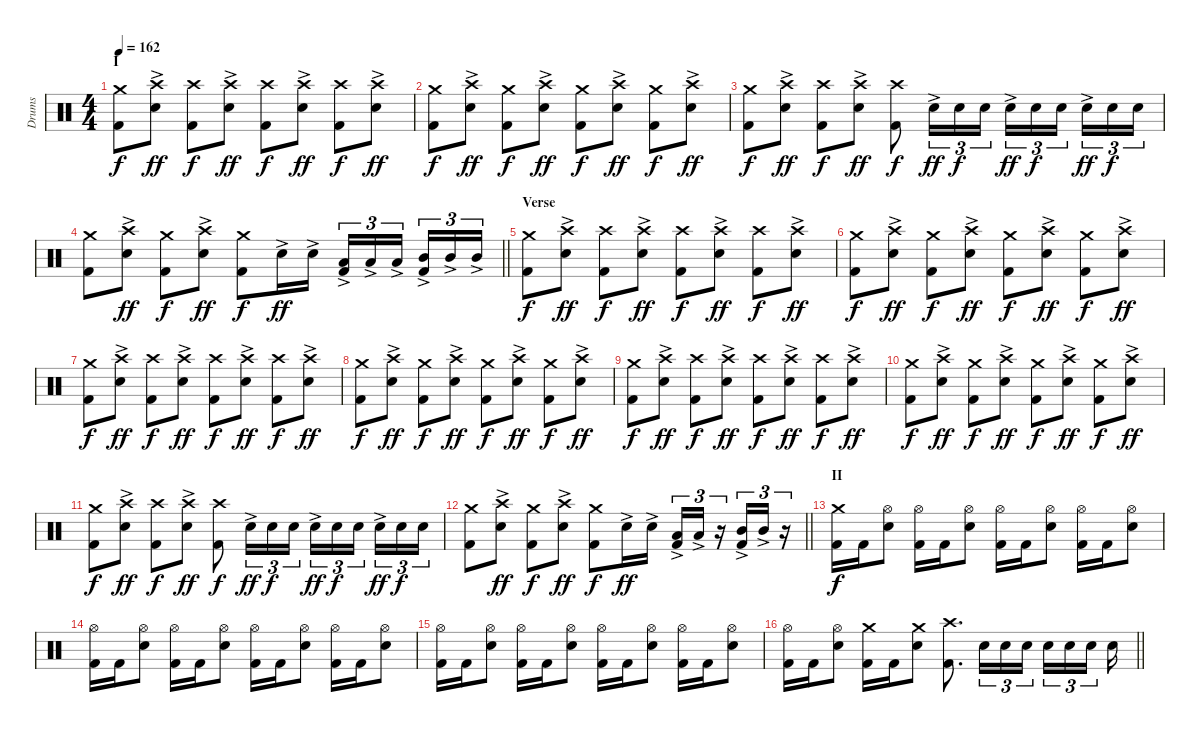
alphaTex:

\track ("Drums" "Drums") {instrument percussion}
\staff {score}
\articulation defaults
\ts (4 4)
\section ("" "I")
\tempo 162
\clef neutral
\ks c
("Crash medium (hit)" "Kick (hit) 2").8{dy f} ("Crash high (hit)" "Electric Snare (hit)"{ac}).8{dy ff} ("Crash high (hit)" "Kick (hit) 2").8{dy f} ("Crash high (hit)" "Electric Snare (hit)"{ac}).8{dy ff} ("Crash high (hit)" "Kick (hit) 2").8{dy f} ("Crash high (hit)" "Electric Snare (hit)"{ac}).8{dy ff} ("Crash high (hit)" "Kick (hit) 2").8{dy f} ("Crash high (hit)" "Electric Snare (hit)"{ac}).8{dy ff} |
("Crash medium (hit)" "Kick (hit) 2").8{dy f} ("Crash high (hit)" "Electric Snare (hit)"{ac}).8{dy ff} ("Crash medium (hit)" "Kick (hit) 2").8{dy f} ("Crash high (hit)" "Electric Snare (hit)"{ac}).8{dy ff} ("Crash medium (hit)" "Kick (hit) 2").8{dy f} ("Crash high (hit)" "Electric Snare (hit)"{ac}).8{dy ff} ("Crash medium (hit)" "Kick (hit) 2").8{dy f} ("Crash high (hit)" "Electric Snare (hit)"{ac}).8{dy ff} |
("Crash medium (hit)" "Kick (hit) 2").8{dy f} ("Crash high (hit)" "Electric Snare (hit)"{ac}).8{dy ff} ("Crash high (hit)" "Kick (hit) 2").8{dy f} ("Crash high (hit)" "Electric Snare (hit)"{ac}).8{dy ff} ("Crash high (hit)" "Kick (hit) 2").8{dy f} "Electric Snare (hit)"{ac}.16{tu (3 2) dy ff} "Electric Snare (hit)".16{tu (3 2) dy f} "Electric Snare (hit)".16{tu (3 2)} "Electric Snare (hit)"{ac}.16{tu (3 2) dy ff} "Electric Snare (hit)".16{tu (3 2) dy f} "Electric Snare (hit)".16{tu (3 2) beam splitsecondary} "Electric Snare (hit)"{ac}.16{tu (3 2) dy ff} "Electric Snare (hit)".16{tu (3 2) dy f} "Electric Snare (hit)".16{tu (3 2)} |
\barLineRight lightlight
("Crash medium (hit)" "Kick (hit) 2").8 ("Crash high (hit)" "Electric Snare (hit)"{ac}).8{dy ff} ("Crash medium (hit)" "Kick (hit) 2").8{dy f} ("Crash high (hit)" "Electric Snare (hit)"{ac}).8{dy ff} ("Crash medium (hit)" "Kick (hit) 2").8{dy f} "Electric Snare (hit)"{ac}.16{dy ff} "Electric Snare (hit)"{ac}.16 ("Low Tom (hit)"{ac} "Kick (hit) 2").16{tu (3 2)} "Low Tom (hit)"{ac}.16{tu (3 2)} "Low Tom (hit)"{ac}.16{tu (3 2) beam splitsecondary} ("Mid Tom (hit)"{ac} "Kick (hit) 2").16{tu (3 2)} "Mid Tom (hit)"{ac}.16{tu (3 2)} "Mid Tom (hit)"{ac}.16{tu (3 2)} |
\section ("" "Verse")
("Crash medium (hit)" "Kick (hit) 2").8{dy f} ("Crash high (hit)" "Electric Snare (hit)"{ac}).8{dy ff} ("Crash high (hit)" "Kick (hit) 2").8{dy f} ("Crash high (hit)" "Electric Snare (hit)"{ac}).8{dy ff} ("Crash high (hit)" "Kick (hit) 2").8{dy f} ("Crash high (hit)" "Electric Snare (hit)"{ac}).8{dy ff} ("Crash high (hit)" "Kick (hit) 2").8{dy f} ("Crash high (hit)" "Electric Snare (hit)"{ac}).8{dy ff} |
("Crash medium (hit)" "Kick (hit) 2").8{dy f} ("Crash high (hit)" "Electric Snare (hit)"{ac}).8{dy ff} ("Crash medium (hit)" "Kick (hit) 2").8{dy f} ("Crash high (hit)" "Electric Snare (hit)"{ac}).8{dy ff} ("Crash medium (hit)" "Kick (hit) 2").8{dy f} ("Crash high (hit)" "Electric Snare (hit)"{ac}).8{dy ff} ("Crash medium (hit)" "Kick (hit) 2").8{dy f} ("Crash high (hit)" "Electric Snare (hit)"{ac}).8{dy ff} |
("Crash medium (hit)" "Kick (hit) 2").8{dy f} ("Crash high (hit)" "Electric Snare (hit)"{ac}).8{dy ff} ("Crash high (hit)" "Kick (hit) 2").8{dy f} ("Crash high (hit)" "Electric Snare (hit)"{ac}).8{dy ff} ("Crash high (hit)" "Kick (hit) 2").8{dy f} ("Crash high (hit)" "Electric Snare (hit)"{ac}).8{dy ff} ("Crash high (hit)" "Kick (hit) 2").8{dy f} ("Crash high (hit)" "Electric Snare (hit)"{ac}).8{dy ff} |
("Crash medium (hit)" "Kick (hit) 2").8{dy f} ("Crash high (hit)" "Electric Snare (hit)"{ac}).8{dy ff} ("Crash medium (hit)" "Kick (hit) 2").8{dy f} ("Crash high (hit)" "Electric Snare (hit)"{ac}).8{dy ff} ("Crash medium (hit)" "Kick (hit) 2").8{dy f} ("Crash high (hit)" "Electric Snare (hit)"{ac}).8{dy ff} ("Crash medium (hit)" "Kick (hit) 2").8{dy f} ("Crash high (hit)" "Electric Snare (hit)"{ac}).8{dy ff} |
("Crash medium (hit)" "Kick (hit) 2").8{dy f} ("Crash high (hit)" "Electric Snare (hit)"{ac}).8{dy ff} ("Crash high (hit)" "Kick (hit) 2").8{dy f} ("Crash high (hit)" "Electric Snare (hit)"{ac}).8{dy ff} ("Crash high (hit)" "Kick (hit) 2").8{dy f} ("Crash high (hit)" "Electric Snare (hit)"{ac}).8{dy ff} ("Crash high (hit)" "Kick (hit) 2").8{dy f} ("Crash high (hit)" "Electric Snare (hit)"{ac}).8{dy ff} |
("Crash medium (hit)" "Kick (hit) 2").8{dy f} ("Crash high (hit)" "Electric Snare (hit)"{ac}).8{dy ff} ("Crash medium (hit)" "Kick (hit) 2").8{dy f} ("Crash high (hit)" "Electric Snare (hit)"{ac}).8{dy ff} ("Crash medium (hit)" "Kick (hit) 2").8{dy f} ("Crash high (hit)" "Electric Snare (hit)"{ac}).8{dy ff} ("Crash medium (hit)" "Kick (hit) 2").8{dy f} ("Crash high (hit)" "Electric Snare (hit)"{ac}).8{dy ff} |
("Crash medium (hit)" "Kick (hit) 2").8{dy f} ("Crash high (hit)" "Electric Snare (hit)"{ac}).8{dy ff} ("Crash high (hit)" "Kick (hit) 2").8{dy f} ("Crash high (hit)" "Electric Snare (hit)"{ac}).8{dy ff} ("Crash high (hit)" "Kick (hit) 2").8{dy f} "Electric Snare (hit)"{ac}.16{tu (3 2) dy ff} "Electric Snare (hit)".16{tu (3 2) dy f} "Electric Snare (hit)".16{tu (3 2)} "Electric Snare (hit)"{ac}.16{tu (3 2) dy ff} "Electric Snare (hit)".16{tu (3 2) dy f} "Electric Snare (hit)".16{tu (3 2) beam splitsecondary} "Electric Snare (hit)"{ac}.16{tu (3 2) dy ff} "Electric Snare (hit)".16{tu (3 2) dy f} "Electric Snare (hit)".16{tu (3 2)} |
\barLineRight lightlight
("Crash medium (hit)" "Kick (hit) 2").8 ("Crash high (hit)" "Electric Snare (hit)"{ac}).8{dy ff} ("Crash medium (hit)" "Kick (hit) 2").8{dy f} ("Crash high (hit)" "Electric Snare (hit)"{ac}).8{dy ff} ("Crash medium (hit)" "Kick (hit) 2").8{dy f} "Electric Snare (hit)"{ac}.16{dy ff} "Electric Snare (hit)"{ac}.16 ("Low Tom (hit)"{ac} "Kick (hit) 2").16{tu (3 2)} "Low Tom (hit)"{ac}.16{tu (3 2)} r.16{tu (3 2)} ("Mid Tom (hit)"{ac} "Kick (hit) 2").16{tu (3 2)} "Mid Tom (hit)"{ac}.16{tu (3 2)} r.16{tu (3 2)} |
\section ("" "II")
("Crash medium (hit)" "Kick (hit) 2").16{dy f} "Kick (hit) 2".16 ("Hi-Hat (open)" "Electric Snare (hit)").8 ("Hi-Hat (open)" "Kick (hit) 2").16 "Kick (hit) 2".16 ("Hi-Hat (open)" "Electric Snare (hit)").8 ("Hi-Hat (open)" "Kick (hit) 2").16 "Kick (hit) 2".16 ("Hi-Hat (open)" "Electric Snare (hit)").8 ("Hi-Hat (open)" "Kick (hit) 2").16 "Kick (hit) 2".16 ("Hi-Hat (open)" "Electric Snare (hit)").8 |
("Hi-Hat (open)" "Kick (hit) 2").16 "Kick (hit) 2".16 ("Hi-Hat (open)" "Electric Snare (hit)").8 ("Hi-Hat (open)" "Kick (hit) 2").16 "Kick (hit) 2".16 ("Hi-Hat (open)" "Electric Snare (hit)").8 ("Hi-Hat (open)" "Kick (hit) 2").16 "Kick (hit) 2".16 ("Hi-Hat (open)" "Electric Snare (hit)").8 ("Hi-Hat (open)" "Kick (hit) 2").16 "Kick (hit) 2".16 ("Hi-Hat (open)" "Electric Snare (hit)").8 |
("Hi-Hat (open)" "Kick (hit) 2").16 "Kick (hit) 2".16 ("Hi-Hat (open)" "Electric Snare (hit)").8 ("Hi-Hat (open)" "Kick (hit) 2").16 "Kick (hit) 2".16 ("Hi-Hat (open)" "Electric Snare (hit)").8 ("Hi-Hat (open)" "Kick (hit) 2").16 "Kick (hit) 2".16 ("Hi-Hat (open)" "Electric Snare (hit)").8 ("Hi-Hat (open)" "Kick (hit) 2").16 "Kick (hit) 2".16 ("Hi-Hat (open)" "Electric Snare (hit)").8 |
\barLineRight lightlight
("Hi-Hat (open)" "Kick (hit) 2").16 "Kick (hit) 2".16 ("Hi-Hat (open)" "Electric Snare (hit)").8 ("Crash medium (hit)" "Kick (hit) 2").16 "Kick (hit) 2".16 ("Crash medium (hit)" "Electric Snare (hit)").8 ("Crash high (hit)" "Kick (hit) 2").8{d} "Electric Snare (hit)".16{tu (3 2)} "Electric Snare (hit)".16{tu (3 2)} "Electric Snare (hit)".16{tu (3 2) beam splitsecondary} "Electric Snare (hit)".16{tu (3 2)} "Electric Snare (hit)".16{tu (3 2)} "Electric Snare (hit)".16{tu (3 2) beam splitsecondary} "Electric Snare (hit)".16
